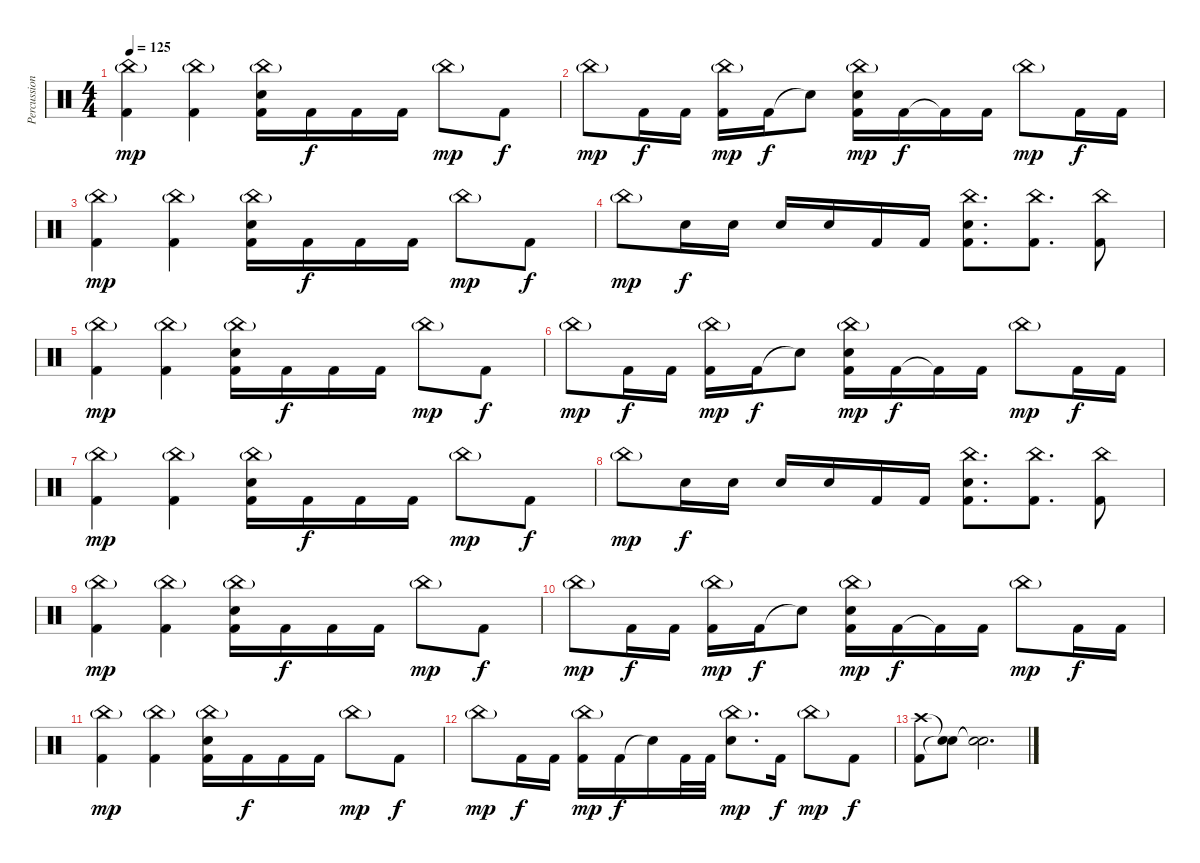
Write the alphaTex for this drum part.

\track ("Percussion" "Percussion") {instrument percussion}
\staff {score}
\articulation defaults
\ts (4 4)
\tempo 125
\clef neutral
\ks c
("China (hit)"{g} "Kick (hit) 2").4{dy mp} ("China (hit)"{g} "Kick (hit) 2").4 ("China (hit)"{g} "Electric Snare (hit)" "Kick (hit) 2").16 "Kick (hit) 2".16{dy f} "Kick (hit) 2".16 "Kick (hit) 2".16 "China (hit)"{g}.8{dy mp} "Kick (hit) 2".8{dy f} |
"China (hit)"{g}.8{dy mp} "Kick (hit) 2".16{dy f} "Kick (hit) 2".16 ("China (hit)"{g} "Kick (hit) 2").16{dy mp} "Kick (hit) 2".16{dy f} "Snare (hit)"{t}.8 ("China (hit)"{g} "Electric Snare (hit)" "Kick (hit) 2").16{dy mp} "Kick (hit) 2".16{dy f} "Kick (hit) 2"{t}.16 "Kick (hit) 2".16 "China (hit)"{g}.8{dy mp} "Kick (hit) 2".16{dy f} "Kick (hit) 2".16 |
("China (hit)"{g} "Kick (hit) 2").4{dy mp} ("China (hit)"{g} "Kick (hit) 2").4 ("China (hit)"{g} "Electric Snare (hit)" "Kick (hit) 2").16 "Kick (hit) 2".16{dy f} "Kick (hit) 2".16 "Kick (hit) 2".16 "China (hit)"{g}.8{dy mp} "Kick (hit) 2".8{dy f} |
"China (hit)"{g}.8{dy mp} "Electric Snare (hit)".16{dy f} "Electric Snare (hit)".16 "Electric Snare (hit)".16 "Electric Snare (hit)".16 "Kick (hit) 2".16 "Kick (hit) 2".16 ("China (hit)" "Electric Snare (hit)" "Kick (hit) 2").8{d} ("China (hit)" "Kick (hit) 2").8{d} ("China (hit)" "Kick (hit) 2").8 |
("China (hit)"{g} "Kick (hit) 2").4{dy mp} ("China (hit)"{g} "Kick (hit) 2").4 ("China (hit)"{g} "Electric Snare (hit)" "Kick (hit) 2").16 "Kick (hit) 2".16{dy f} "Kick (hit) 2".16 "Kick (hit) 2".16 "China (hit)"{g}.8{dy mp} "Kick (hit) 2".8{dy f} |
"China (hit)"{g}.8{dy mp} "Kick (hit) 2".16{dy f} "Kick (hit) 2".16 ("China (hit)"{g} "Kick (hit) 2").16{dy mp} "Kick (hit) 2".16{dy f} "Snare (hit)"{t}.8 ("China (hit)"{g} "Electric Snare (hit)" "Kick (hit) 2").16{dy mp} "Kick (hit) 2".16{dy f} "Kick (hit) 2"{t}.16 "Kick (hit) 2".16 "China (hit)"{g}.8{dy mp} "Kick (hit) 2".16{dy f} "Kick (hit) 2".16 |
("China (hit)"{g} "Kick (hit) 2").4{dy mp} ("China (hit)"{g} "Kick (hit) 2").4 ("China (hit)"{g} "Electric Snare (hit)" "Kick (hit) 2").16 "Kick (hit) 2".16{dy f} "Kick (hit) 2".16 "Kick (hit) 2".16 "China (hit)"{g}.8{dy mp} "Kick (hit) 2".8{dy f} |
"China (hit)"{g}.8{dy mp} "Electric Snare (hit)".16{dy f} "Electric Snare (hit)".16 "Electric Snare (hit)".16 "Electric Snare (hit)".16 "Kick (hit) 2".16 "Kick (hit) 2".16 ("China (hit)" "Electric Snare (hit)" "Kick (hit) 2").8{d} ("China (hit)" "Kick (hit) 2").8{d} ("China (hit)" "Kick (hit) 2").8 |
("China (hit)"{g} "Kick (hit) 2").4{dy mp} ("China (hit)"{g} "Kick (hit) 2").4 ("China (hit)"{g} "Electric Snare (hit)" "Kick (hit) 2").16 "Kick (hit) 2".16{dy f} "Kick (hit) 2".16 "Kick (hit) 2".16 "China (hit)"{g}.8{dy mp} "Kick (hit) 2".8{dy f} |
"China (hit)"{g}.8{dy mp} "Kick (hit) 2".16{dy f} "Kick (hit) 2".16 ("China (hit)"{g} "Kick (hit) 2").16{dy mp} "Kick (hit) 2".16{dy f} "Snare (hit)"{t}.8 ("China (hit)"{g} "Electric Snare (hit)" "Kick (hit) 2").16{dy mp} "Kick (hit) 2".16{dy f} "Kick (hit) 2"{t}.16 "Kick (hit) 2".16 "China (hit)"{g}.8{dy mp} "Kick (hit) 2".16{dy f} "Kick (hit) 2".16 |
("China (hit)"{g} "Kick (hit) 2").4{dy mp} ("China (hit)"{g} "Kick (hit) 2").4 ("China (hit)"{g} "Electric Snare (hit)" "Kick (hit) 2").16 "Kick (hit) 2".16{dy f} "Kick (hit) 2".16 "Kick (hit) 2".16 "China (hit)"{g}.8{dy mp} "Kick (hit) 2".8{dy f} |
"China (hit)"{g}.8{dy mp} "Kick (hit) 2".16{dy f} "Kick (hit) 2".16 ("China (hit)"{g} "Kick (hit) 2").16{dy mp} "Kick (hit) 2".16{dy f} "Snare (hit)"{t}.16 "Kick (hit) 2".32 "Kick (hit) 2".32 ("China (hit)"{g} "Electric Snare (hit)").8{d dy mp} "Kick (hit) 2".16{dy f} "China (hit)"{g}.8{dy mp} "Kick (hit) 2".8{dy f} |
("Crash high (hit)" "Kick (hit) 2").8 ("Snare (hit)"{t} "Snare (hit)"{t}).8 ("Snare (hit)"{t} "Snare (hit)"{t}).2{d}
